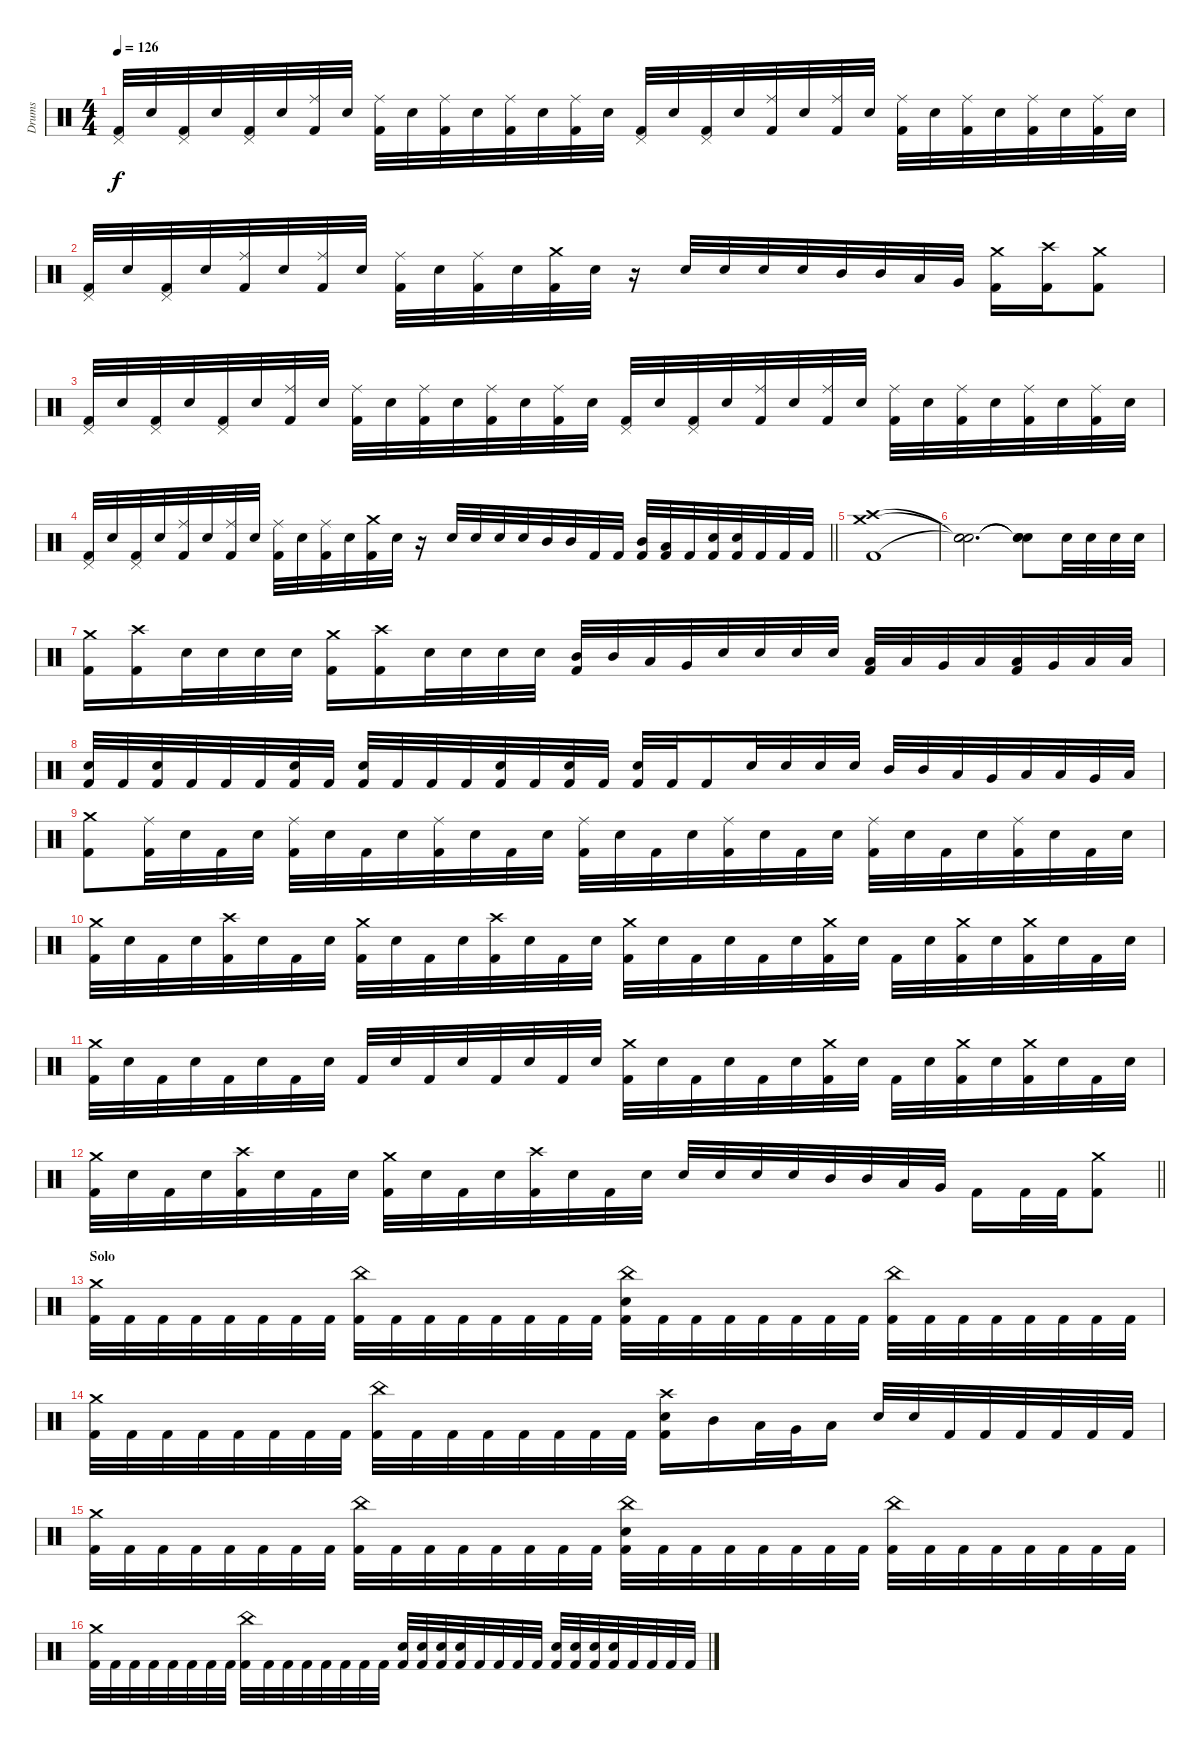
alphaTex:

\track ("Drums" "Drums") {instrument percussion}
\staff {score}
\articulation defaults
\ts (4 4)
\tempo 126
\clef neutral
\ks c
("Pedal Hi-Hat (hit)" "Kick (hit) 2").32{dy f} "Electric Snare (hit)".32 ("Pedal Hi-Hat (hit)" "Kick (hit) 2").32 "Electric Snare (hit)".32 ("Pedal Hi-Hat (hit)" "Kick (hit) 2").32 "Electric Snare (hit)".32 ("Ride (middle)" "Kick (hit) 2").32 "Electric Snare (hit)".32 ("Ride (middle)" "Kick (hit) 2").32 "Electric Snare (hit)".32 ("Ride (middle)" "Kick (hit) 2").32 "Electric Snare (hit)".32 ("Ride (middle)" "Kick (hit) 2").32 "Electric Snare (hit)".32 ("Ride (middle)" "Kick (hit) 2").32 "Electric Snare (hit)".32 ("Pedal Hi-Hat (hit)" "Kick (hit) 2").32 "Electric Snare (hit)".32 ("Pedal Hi-Hat (hit)" "Kick (hit) 2").32 "Electric Snare (hit)".32 ("Ride (middle)" "Kick (hit) 2").32 "Electric Snare (hit)".32 ("Ride (middle)" "Kick (hit) 2").32 "Electric Snare (hit)".32 ("Ride (middle)" "Kick (hit) 2").32 "Electric Snare (hit)".32 ("Ride (middle)" "Kick (hit) 2").32 "Electric Snare (hit)".32 ("Ride (middle)" "Kick (hit) 2").32 "Electric Snare (hit)".32 ("Ride (middle)" "Kick (hit) 2").32 "Electric Snare (hit)".32 |
("Pedal Hi-Hat (hit)" "Kick (hit) 2").32 "Electric Snare (hit)".32 ("Pedal Hi-Hat (hit)" "Kick (hit) 2").32 "Electric Snare (hit)".32 ("Ride (middle)" "Kick (hit) 2").32 "Electric Snare (hit)".32 ("Ride (middle)" "Kick (hit) 2").32 "Electric Snare (hit)".32 ("Ride (middle)" "Kick (hit) 2").32 "Electric Snare (hit)".32 ("Ride (middle)" "Kick (hit) 2").32 "Electric Snare (hit)".32 ("Crash medium (hit)" "Kick (hit) 2").32 "Electric Snare (hit)".32 r.16 "Electric Snare (hit)".32 "Electric Snare (hit)".32 "Electric Snare (hit)".32 "Electric Snare (hit)".32 "Mid Tom (hit)".32 "Mid Tom (hit)".32 "Low Tom (hit)".32 "Very Low Tom (hit)".32 ("Crash medium (hit)" "Kick (hit) 2").16 ("Crash high (hit)" "Kick (hit) 2").16 ("Crash medium (hit)" "Kick (hit) 2").8 |
("Pedal Hi-Hat (hit)" "Kick (hit) 2").32 "Electric Snare (hit)".32 ("Pedal Hi-Hat (hit)" "Kick (hit) 2").32 "Electric Snare (hit)".32 ("Pedal Hi-Hat (hit)" "Kick (hit) 2").32 "Electric Snare (hit)".32 ("Ride (middle)" "Kick (hit) 2").32 "Electric Snare (hit)".32 ("Ride (middle)" "Kick (hit) 2").32 "Electric Snare (hit)".32 ("Ride (middle)" "Kick (hit) 2").32 "Electric Snare (hit)".32 ("Ride (middle)" "Kick (hit) 2").32 "Electric Snare (hit)".32 ("Ride (middle)" "Kick (hit) 2").32 "Electric Snare (hit)".32 ("Pedal Hi-Hat (hit)" "Kick (hit) 2").32 "Electric Snare (hit)".32 ("Pedal Hi-Hat (hit)" "Kick (hit) 2").32 "Electric Snare (hit)".32 ("Ride (middle)" "Kick (hit) 2").32 "Electric Snare (hit)".32 ("Ride (middle)" "Kick (hit) 2").32 "Electric Snare (hit)".32 ("Ride (middle)" "Kick (hit) 2").32 "Electric Snare (hit)".32 ("Ride (middle)" "Kick (hit) 2").32 "Electric Snare (hit)".32 ("Ride (middle)" "Kick (hit) 2").32 "Electric Snare (hit)".32 ("Ride (middle)" "Kick (hit) 2").32 "Electric Snare (hit)".32 |
\barLineRight lightlight
("Pedal Hi-Hat (hit)" "Kick (hit) 2").32 "Electric Snare (hit)".32 ("Pedal Hi-Hat (hit)" "Kick (hit) 2").32 "Electric Snare (hit)".32 ("Ride (middle)" "Kick (hit) 2").32 "Electric Snare (hit)".32 ("Ride (middle)" "Kick (hit) 2").32 "Electric Snare (hit)".32 ("Ride (middle)" "Kick (hit) 2").32 "Electric Snare (hit)".32 ("Ride (middle)" "Kick (hit) 2").32 "Electric Snare (hit)".32 ("Crash medium (hit)" "Kick (hit) 2").32 "Electric Snare (hit)".32 r.16 "Electric Snare (hit)".32 "Electric Snare (hit)".32 "Electric Snare (hit)".32 "Electric Snare (hit)".32 "Mid Tom (hit)".32 "Mid Tom (hit)".32 "Kick (hit) 2".32 "Kick (hit) 2".32 ("Mid Tom (hit)" "Kick (hit) 2").32 ("Low Tom (hit)" "Kick (hit) 2").32 "Kick (hit) 2".32 ("Electric Snare (hit)" "Kick (hit) 2").32 ("Electric Snare (hit)" "Kick (hit) 2").32 "Kick (hit) 2".32 "Kick (hit) 2".32 "Kick (hit) 2".32 |
\section ("" "")
("Crash medium (hit)" "Crash high (hit)" "Kick (hit) 2").1 |
("Snare (hit)"{t} "Snare (hit)"{t} "Snare (hit)"{t}).2{d} ("Snare (hit)"{t} "Snare (hit)"{t} "Snare (hit)"{t}).8 "Electric Snare (hit)".32 "Electric Snare (hit)".32 "Electric Snare (hit)".32 "Electric Snare (hit)".32 |
("Crash medium (hit)" "Kick (hit) 2").16 ("Crash high (hit)" "Kick (hit) 2").16 "Electric Snare (hit)".32 "Electric Snare (hit)".32 "Electric Snare (hit)".32 "Electric Snare (hit)".32 ("Crash medium (hit)" "Kick (hit) 2").16 ("Crash high (hit)" "Kick (hit) 2").16 "Electric Snare (hit)".32 "Electric Snare (hit)".32 "Electric Snare (hit)".32 "Electric Snare (hit)".32 ("Mid Tom (hit)" "Kick (hit) 2").32 "Mid Tom (hit)".32 "Low Tom (hit)".32 "Very Low Tom (hit)".32 "Electric Snare (hit)".32 "Electric Snare (hit)".32 "Electric Snare (hit)".32 "Electric Snare (hit)".32 ("Low Tom (hit)" "Kick (hit) 2").32 "Low Tom (hit)".32 "Very Low Tom (hit)".32 "Low Floor Tom (hit)".32 ("Low Tom (hit)" "Kick (hit) 2").32 "Very Low Tom (hit)".32 "Low Floor Tom (hit)".32 "Low Floor Tom (hit)".32 |
("Electric Snare (hit)" "Kick (hit) 2").32 "Kick (hit) 2".32 ("Electric Snare (hit)" "Kick (hit) 2").32 "Kick (hit) 2".32 "Kick (hit) 2".32 "Kick (hit) 2".32 ("Electric Snare (hit)" "Kick (hit) 2").32 "Kick (hit) 2".32 ("Electric Snare (hit)" "Kick (hit) 2").32 "Kick (hit) 2".32 "Kick (hit) 2".32 "Kick (hit) 2".32 ("Electric Snare (hit)" "Kick (hit) 2").32 "Kick (hit) 2".32 ("Electric Snare (hit)" "Kick (hit) 2").32 "Kick (hit) 2".32 ("Electric Snare (hit)" "Kick (hit) 2").32 "Kick (hit) 2".32 "Kick (hit) 2".16 "Electric Snare (hit)".32 "Electric Snare (hit)".32 "Electric Snare (hit)".32 "Electric Snare (hit)".32 "Mid Tom (hit)".32 "Mid Tom (hit)".32 "Low Tom (hit)".32 "Very Low Tom (hit)".32 "Low Tom (hit)".32 "Low Tom (hit)".32 "Very Low Tom (hit)".32 "Low Floor Tom (hit)".32 |
("Crash medium (hit)" "Kick (hit) 2").8 ("Ride (middle)" "Kick (hit) 2").32 "Electric Snare (hit)".32 "Kick (hit) 2".32 "Electric Snare (hit)".32 ("Ride (middle)" "Kick (hit) 2").32 "Electric Snare (hit)".32 "Kick (hit) 2".32 "Electric Snare (hit)".32 ("Ride (middle)" "Kick (hit) 2").32 "Electric Snare (hit)".32 "Kick (hit) 2".32 "Electric Snare (hit)".32 ("Ride (middle)" "Kick (hit) 2").32 "Electric Snare (hit)".32 "Kick (hit) 2".32 "Electric Snare (hit)".32 ("Ride (middle)" "Kick (hit) 2").32 "Electric Snare (hit)".32 "Kick (hit) 2".32 "Electric Snare (hit)".32 ("Ride (middle)" "Kick (hit) 2").32 "Electric Snare (hit)".32 "Kick (hit) 2".32 "Electric Snare (hit)".32 ("Ride (middle)" "Kick (hit) 2").32 "Electric Snare (hit)".32 "Kick (hit) 2".32 "Electric Snare (hit)".32 |
("Crash medium (hit)" "Kick (hit) 2").32 "Electric Snare (hit)".32 "Kick (hit) 2".32 "Electric Snare (hit)".32 ("Crash high (hit)" "Kick (hit) 2").32 "Electric Snare (hit)".32 "Kick (hit) 2".32 "Electric Snare (hit)".32 ("Crash medium (hit)" "Kick (hit) 2").32 "Electric Snare (hit)".32 "Kick (hit) 2".32 "Electric Snare (hit)".32 ("Crash high (hit)" "Kick (hit) 2").32 "Electric Snare (hit)".32 "Kick (hit) 2".32 "Electric Snare (hit)".32 ("Crash medium (hit)" "Kick (hit) 2").32 "Electric Snare (hit)".32 "Kick (hit) 2".32 "Electric Snare (hit)".32 "Kick (hit) 2".32 "Electric Snare (hit)".32 ("Crash medium (hit)" "Kick (hit) 2").32 "Electric Snare (hit)".32 "Kick (hit) 2".32 "Electric Snare (hit)".32 ("Crash medium (hit)" "Kick (hit) 2").32 "Electric Snare (hit)".32 ("Crash medium (hit)" "Kick (hit) 2").32 "Electric Snare (hit)".32 "Kick (hit) 2".32 "Electric Snare (hit)".32 |
("Crash medium (hit)" "Kick (hit) 2").32 "Electric Snare (hit)".32 "Kick (hit) 2".32 "Electric Snare (hit)".32 "Kick (hit) 2".32 "Electric Snare (hit)".32 "Kick (hit) 2".32 "Electric Snare (hit)".32 "Kick (hit) 2".32 "Electric Snare (hit)".32 "Kick (hit) 2".32 "Electric Snare (hit)".32 "Kick (hit) 2".32 "Electric Snare (hit)".32 "Kick (hit) 2".32 "Electric Snare (hit)".32 ("Crash medium (hit)" "Kick (hit) 2").32 "Electric Snare (hit)".32 "Kick (hit) 2".32 "Electric Snare (hit)".32 "Kick (hit) 2".32 "Electric Snare (hit)".32 ("Crash medium (hit)" "Kick (hit) 2").32 "Electric Snare (hit)".32 "Kick (hit) 2".32 "Electric Snare (hit)".32 ("Crash medium (hit)" "Kick (hit) 2").32 "Electric Snare (hit)".32 ("Crash medium (hit)" "Kick (hit) 2").32 "Electric Snare (hit)".32 "Kick (hit) 2".32 "Electric Snare (hit)".32 |
\barLineRight lightlight
("Crash medium (hit)" "Kick (hit) 2").32 "Electric Snare (hit)".32 "Kick (hit) 2".32 "Electric Snare (hit)".32 ("Crash high (hit)" "Kick (hit) 2").32 "Electric Snare (hit)".32 "Kick (hit) 2".32 "Electric Snare (hit)".32 ("Crash medium (hit)" "Kick (hit) 2").32 "Electric Snare (hit)".32 "Kick (hit) 2".32 "Electric Snare (hit)".32 ("Crash high (hit)" "Kick (hit) 2").32 "Electric Snare (hit)".32 "Kick (hit) 2".32 "Electric Snare (hit)".32 "Electric Snare (hit)".32 "Electric Snare (hit)".32 "Electric Snare (hit)".32 "Electric Snare (hit)".32 "Mid Tom (hit)".32 "Mid Tom (hit)".32 "Low Tom (hit)".32 "Very Low Tom (hit)".32 "Kick (hit) 2".16 "Kick (hit) 2".32 "Kick (hit) 2".32 ("Crash medium (hit)" "Kick (hit) 2").8 |
\section ("" "Solo")
("Crash medium (hit)" "Kick (hit) 2").32 "Kick (hit) 2".32 "Kick (hit) 2".32 "Kick (hit) 2".32 "Kick (hit) 2".32 "Kick (hit) 2".32 "Kick (hit) 2".32 "Kick (hit) 2".32 ("China (hit)" "Kick (hit) 2").32 "Kick (hit) 2".32 "Kick (hit) 2".32 "Kick (hit) 2".32 "Kick (hit) 2".32 "Kick (hit) 2".32 "Kick (hit) 2".32 "Kick (hit) 2".32 ("China (hit)" "Electric Snare (hit)" "Kick (hit) 2").32 "Kick (hit) 2".32 "Kick (hit) 2".32 "Kick (hit) 2".32 "Kick (hit) 2".32 "Kick (hit) 2".32 "Kick (hit) 2".32 "Kick (hit) 2".32 ("China (hit)" "Kick (hit) 2").32 "Kick (hit) 2".32 "Kick (hit) 2".32 "Kick (hit) 2".32 "Kick (hit) 2".32 "Kick (hit) 2".32 "Kick (hit) 2".32 "Kick (hit) 2".32 |
("Crash medium (hit)" "Kick (hit) 2").32 "Kick (hit) 2".32 "Kick (hit) 2".32 "Kick (hit) 2".32 "Kick (hit) 2".32 "Kick (hit) 2".32 "Kick (hit) 2".32 "Kick (hit) 2".32 ("China (hit)" "Kick (hit) 2").32 "Kick (hit) 2".32 "Kick (hit) 2".32 "Kick (hit) 2".32 "Kick (hit) 2".32 "Kick (hit) 2".32 "Kick (hit) 2".32 "Kick (hit) 2".32 ("Crash high (hit)" "Electric Snare (hit)" "Kick (hit) 2").16 "Mid Tom (hit)".16 "Low Tom (hit)".32 "Very Low Tom (hit)".32 "Low Floor Tom (hit)".16 "Electric Snare (hit)".32 "Electric Snare (hit)".32 "Kick (hit) 2".32 "Kick (hit) 2".32 "Kick (hit) 2".32 "Kick (hit) 2".32 "Kick (hit) 2".32 "Kick (hit) 2".32 |
("Crash medium (hit)" "Kick (hit) 2").32 "Kick (hit) 2".32 "Kick (hit) 2".32 "Kick (hit) 2".32 "Kick (hit) 2".32 "Kick (hit) 2".32 "Kick (hit) 2".32 "Kick (hit) 2".32 ("China (hit)" "Kick (hit) 2").32 "Kick (hit) 2".32 "Kick (hit) 2".32 "Kick (hit) 2".32 "Kick (hit) 2".32 "Kick (hit) 2".32 "Kick (hit) 2".32 "Kick (hit) 2".32 ("China (hit)" "Electric Snare (hit)" "Kick (hit) 2").32 "Kick (hit) 2".32 "Kick (hit) 2".32 "Kick (hit) 2".32 "Kick (hit) 2".32 "Kick (hit) 2".32 "Kick (hit) 2".32 "Kick (hit) 2".32 ("China (hit)" "Kick (hit) 2").32 "Kick (hit) 2".32 "Kick (hit) 2".32 "Kick (hit) 2".32 "Kick (hit) 2".32 "Kick (hit) 2".32 "Kick (hit) 2".32 "Kick (hit) 2".32 |
("Crash medium (hit)" "Kick (hit) 2").32 "Kick (hit) 2".32 "Kick (hit) 2".32 "Kick (hit) 2".32 "Kick (hit) 2".32 "Kick (hit) 2".32 "Kick (hit) 2".32 "Kick (hit) 2".32 ("China (hit)" "Kick (hit) 2").32 "Kick (hit) 2".32 "Kick (hit) 2".32 "Kick (hit) 2".32 "Kick (hit) 2".32 "Kick (hit) 2".32 "Kick (hit) 2".32 "Kick (hit) 2".32 ("Electric Snare (hit)" "Kick (hit) 2").32 ("Electric Snare (hit)" "Kick (hit) 2").32 ("Electric Snare (hit)" "Kick (hit) 2").32 ("Electric Snare (hit)" "Kick (hit) 2").32 "Kick (hit) 2".32 "Kick (hit) 2".32 "Kick (hit) 2".32 "Kick (hit) 2".32 ("Electric Snare (hit)" "Kick (hit) 2").32 ("Electric Snare (hit)" "Kick (hit) 2").32 ("Electric Snare (hit)" "Kick (hit) 2").32 ("Electric Snare (hit)" "Kick (hit) 2").32 "Kick (hit) 2".32 "Kick (hit) 2".32 "Kick (hit) 2".32 "Kick (hit) 2".32
